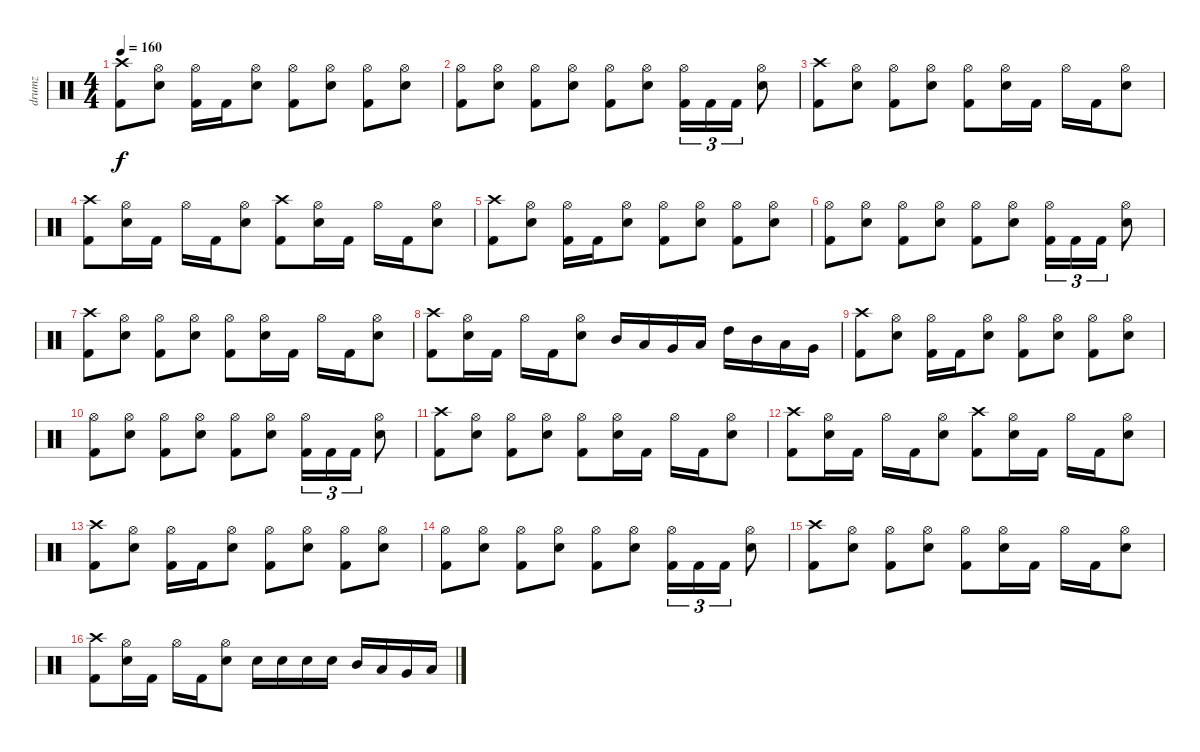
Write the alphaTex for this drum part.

\track ("drumz" "drumz") {instrument percussion}
\staff {score}
\articulation defaults
\ts (4 4)
\tempo 160
\clef neutral
\ks c
("Crash high (hit)" "Kick (hit) 2").8{dy f} ("Hi-Hat (open)" "Electric Snare (hit)").8 ("Hi-Hat (open)" "Kick (hit) 2").16 "Kick (hit) 2".16 ("Hi-Hat (open)" "Electric Snare (hit)").8 ("Hi-Hat (open)" "Kick (hit) 2").8 ("Hi-Hat (open)" "Electric Snare (hit)").8 ("Hi-Hat (open)" "Kick (hit) 2").8 ("Hi-Hat (open)" "Electric Snare (hit)").8 |
("Hi-Hat (open)" "Kick (hit) 2").8 ("Hi-Hat (open)" "Electric Snare (hit)").8 ("Hi-Hat (open)" "Kick (hit) 2").8 ("Hi-Hat (open)" "Electric Snare (hit)").8 ("Hi-Hat (open)" "Kick (hit) 2").8 ("Hi-Hat (open)" "Electric Snare (hit)").8 ("Hi-Hat (open)" "Kick (hit) 2").16{tu (3 2)} "Kick (hit) 2".16{tu (3 2)} "Kick (hit) 2".16{tu (3 2)} ("Hi-Hat (open)" "Electric Snare (hit)").8 |
("Crash high (hit)" "Kick (hit) 2").8 ("Hi-Hat (open)" "Electric Snare (hit)").8 ("Hi-Hat (open)" "Kick (hit) 2").8 ("Hi-Hat (open)" "Electric Snare (hit)").8 ("Hi-Hat (open)" "Kick (hit) 2").8 ("Hi-Hat (open)" "Electric Snare (hit)").16 "Kick (hit) 2".16 "Hi-Hat (open)".16 "Kick (hit) 2".16 ("Hi-Hat (open)" "Electric Snare (hit)").8 |
("Crash high (hit)" "Kick (hit) 2").8 ("Hi-Hat (open)" "Electric Snare (hit)").16 "Kick (hit) 2".16 "Hi-Hat (open)".16 "Kick (hit) 2".16 ("Hi-Hat (open)" "Electric Snare (hit)").8 ("Crash high (hit)" "Kick (hit) 2").8 ("Hi-Hat (open)" "Electric Snare (hit)").16 "Kick (hit) 2".16 "Hi-Hat (open)".16 "Kick (hit) 2".16 ("Hi-Hat (open)" "Electric Snare (hit)").8 |
("Crash high (hit)" "Kick (hit) 2").8 ("Hi-Hat (open)" "Electric Snare (hit)").8 ("Hi-Hat (open)" "Kick (hit) 2").16 "Kick (hit) 2".16 ("Hi-Hat (open)" "Electric Snare (hit)").8 ("Hi-Hat (open)" "Kick (hit) 2").8 ("Hi-Hat (open)" "Electric Snare (hit)").8 ("Hi-Hat (open)" "Kick (hit) 2").8 ("Hi-Hat (open)" "Electric Snare (hit)").8 |
("Hi-Hat (open)" "Kick (hit) 2").8 ("Hi-Hat (open)" "Electric Snare (hit)").8 ("Hi-Hat (open)" "Kick (hit) 2").8 ("Hi-Hat (open)" "Electric Snare (hit)").8 ("Hi-Hat (open)" "Kick (hit) 2").8 ("Hi-Hat (open)" "Electric Snare (hit)").8 ("Hi-Hat (open)" "Kick (hit) 2").16{tu (3 2)} "Kick (hit) 2".16{tu (3 2)} "Kick (hit) 2".16{tu (3 2)} ("Hi-Hat (open)" "Electric Snare (hit)").8 |
("Crash high (hit)" "Kick (hit) 2").8 ("Hi-Hat (open)" "Electric Snare (hit)").8 ("Hi-Hat (open)" "Kick (hit) 2").8 ("Hi-Hat (open)" "Electric Snare (hit)").8 ("Hi-Hat (open)" "Kick (hit) 2").8 ("Hi-Hat (open)" "Electric Snare (hit)").16 "Kick (hit) 2".16 "Hi-Hat (open)".16 "Kick (hit) 2".16 ("Hi-Hat (open)" "Electric Snare (hit)").8 |
("Crash high (hit)" "Kick (hit) 2").8 ("Hi-Hat (open)" "Electric Snare (hit)").16 "Kick (hit) 2".16 "Hi-Hat (open)".16 "Kick (hit) 2".16 ("Hi-Hat (open)" "Electric Snare (hit)").8 "Mid Tom (hit)".16 "Low Tom (hit)".16 "Very Low Tom (hit)".16 "Low Floor Tom (hit)".16 "High Tom (hit)".16 "Mid Tom (hit)".16 "Low Tom (hit)".16 "Very Low Tom (hit)".16 |
("Crash high (hit)" "Kick (hit) 2").8 ("Hi-Hat (open)" "Electric Snare (hit)").8 ("Hi-Hat (open)" "Kick (hit) 2").16 "Kick (hit) 2".16 ("Hi-Hat (open)" "Electric Snare (hit)").8 ("Hi-Hat (open)" "Kick (hit) 2").8 ("Hi-Hat (open)" "Electric Snare (hit)").8 ("Hi-Hat (open)" "Kick (hit) 2").8 ("Hi-Hat (open)" "Electric Snare (hit)").8 |
("Hi-Hat (open)" "Kick (hit) 2").8 ("Hi-Hat (open)" "Electric Snare (hit)").8 ("Hi-Hat (open)" "Kick (hit) 2").8 ("Hi-Hat (open)" "Electric Snare (hit)").8 ("Hi-Hat (open)" "Kick (hit) 2").8 ("Hi-Hat (open)" "Electric Snare (hit)").8 ("Hi-Hat (open)" "Kick (hit) 2").16{tu (3 2)} "Kick (hit) 2".16{tu (3 2)} "Kick (hit) 2".16{tu (3 2)} ("Hi-Hat (open)" "Electric Snare (hit)").8 |
("Crash high (hit)" "Kick (hit) 2").8 ("Hi-Hat (open)" "Electric Snare (hit)").8 ("Hi-Hat (open)" "Kick (hit) 2").8 ("Hi-Hat (open)" "Electric Snare (hit)").8 ("Hi-Hat (open)" "Kick (hit) 2").8 ("Hi-Hat (open)" "Electric Snare (hit)").16 "Kick (hit) 2".16 "Hi-Hat (open)".16 "Kick (hit) 2".16 ("Hi-Hat (open)" "Electric Snare (hit)").8 |
("Crash high (hit)" "Kick (hit) 2").8 ("Hi-Hat (open)" "Electric Snare (hit)").16 "Kick (hit) 2".16 "Hi-Hat (open)".16 "Kick (hit) 2".16 ("Hi-Hat (open)" "Electric Snare (hit)").8 ("Crash high (hit)" "Kick (hit) 2").8 ("Hi-Hat (open)" "Electric Snare (hit)").16 "Kick (hit) 2".16 "Hi-Hat (open)".16 "Kick (hit) 2".16 ("Hi-Hat (open)" "Electric Snare (hit)").8 |
("Crash high (hit)" "Kick (hit) 2").8 ("Hi-Hat (open)" "Electric Snare (hit)").8 ("Hi-Hat (open)" "Kick (hit) 2").16 "Kick (hit) 2".16 ("Hi-Hat (open)" "Electric Snare (hit)").8 ("Hi-Hat (open)" "Kick (hit) 2").8 ("Hi-Hat (open)" "Electric Snare (hit)").8 ("Hi-Hat (open)" "Kick (hit) 2").8 ("Hi-Hat (open)" "Electric Snare (hit)").8 |
("Hi-Hat (open)" "Kick (hit) 2").8 ("Hi-Hat (open)" "Electric Snare (hit)").8 ("Hi-Hat (open)" "Kick (hit) 2").8 ("Hi-Hat (open)" "Electric Snare (hit)").8 ("Hi-Hat (open)" "Kick (hit) 2").8 ("Hi-Hat (open)" "Electric Snare (hit)").8 ("Hi-Hat (open)" "Kick (hit) 2").16{tu (3 2)} "Kick (hit) 2".16{tu (3 2)} "Kick (hit) 2".16{tu (3 2)} ("Hi-Hat (open)" "Electric Snare (hit)").8 |
("Crash high (hit)" "Kick (hit) 2").8 ("Hi-Hat (open)" "Electric Snare (hit)").8 ("Hi-Hat (open)" "Kick (hit) 2").8 ("Hi-Hat (open)" "Electric Snare (hit)").8 ("Hi-Hat (open)" "Kick (hit) 2").8 ("Hi-Hat (open)" "Electric Snare (hit)").16 "Kick (hit) 2".16 "Hi-Hat (open)".16 "Kick (hit) 2".16 ("Hi-Hat (open)" "Electric Snare (hit)").8 |
("Crash high (hit)" "Kick (hit) 2").8 ("Hi-Hat (open)" "Electric Snare (hit)").16 "Kick (hit) 2".16 "Hi-Hat (open)".16 "Kick (hit) 2".16 ("Hi-Hat (open)" "Electric Snare (hit)").8 "Electric Snare (hit)".16 "Electric Snare (hit)".16 "Electric Snare (hit)".16 "Electric Snare (hit)".16 "Mid Tom (hit)".16 "Low Tom (hit)".16 "Very Low Tom (hit)".16 "Low Floor Tom (hit)".16
